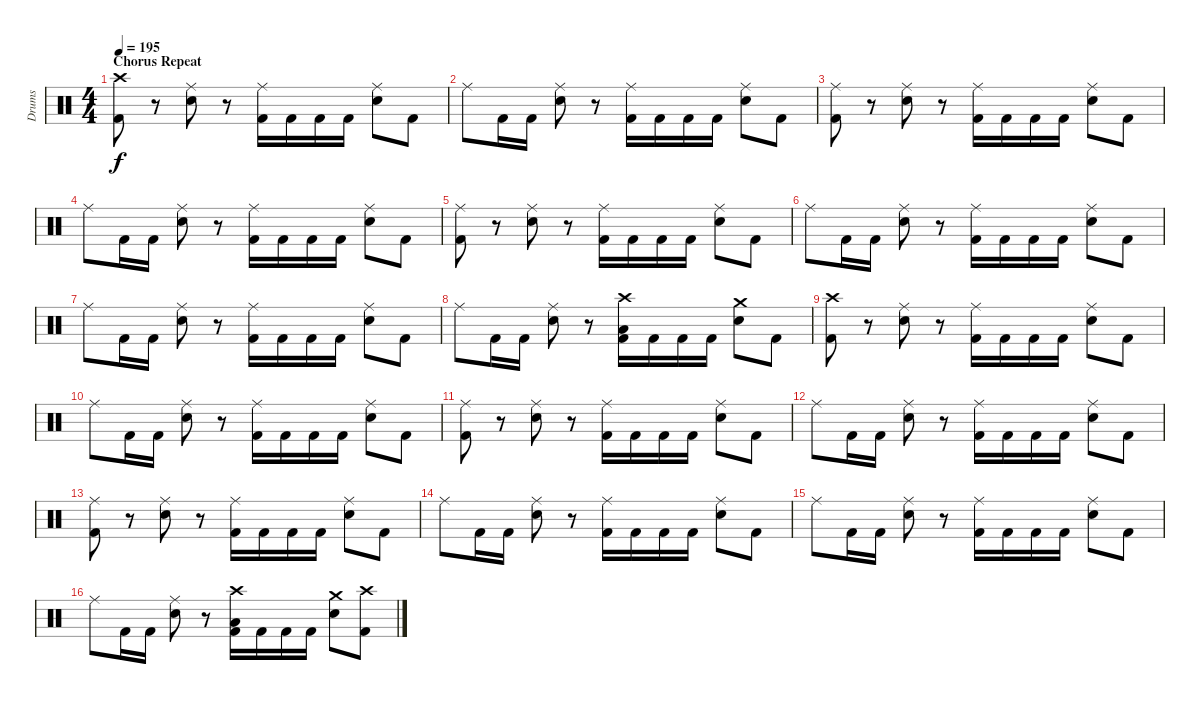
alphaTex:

\track ("Drums" "Drums") {instrument percussion}
\staff {score}
\articulation defaults
\ts (4 4)
\section ("" "Chorus Repeat")
\tempo 195
\clef neutral
\ks c
("Crash high (hit)" "Kick (hit) 2").8{dy f} r.8 ("Ride (middle)" "Snare (hit) 2").8 r.8 ("Ride (middle)" "Kick (hit) 2").16 "Kick (hit) 2".16 "Kick (hit) 2".16 "Kick (hit) 2".16 ("Ride (middle)" "Snare (hit) 2").8 "Kick (hit) 2".8 |
"Ride (middle)".8 "Kick (hit) 2".16 "Kick (hit) 2".16 ("Ride (middle)" "Snare (hit) 2").8 r.8 ("Ride (middle)" "Kick (hit) 2").16 "Kick (hit) 2".16 "Kick (hit) 2".16 "Kick (hit) 2".16 ("Ride (middle)" "Snare (hit) 2").8 "Kick (hit) 2".8 |
("Ride (middle)" "Kick (hit) 2").8 r.8 ("Ride (middle)" "Snare (hit) 2").8 r.8 ("Ride (middle)" "Kick (hit) 2").16 "Kick (hit) 2".16 "Kick (hit) 2".16 "Kick (hit) 2".16 ("Ride (middle)" "Snare (hit) 2").8 "Kick (hit) 2".8 |
"Ride (middle)".8 "Kick (hit) 2".16 "Kick (hit) 2".16 ("Ride (middle)" "Snare (hit) 2").8 r.8 ("Ride (middle)" "Kick (hit) 2").16 "Kick (hit) 2".16 "Kick (hit) 2".16 "Kick (hit) 2".16 ("Ride (middle)" "Snare (hit) 2").8 "Kick (hit) 2".8 |
("Ride (middle)" "Kick (hit) 2").8 r.8 ("Ride (middle)" "Snare (hit) 2").8 r.8 ("Ride (middle)" "Kick (hit) 2").16 "Kick (hit) 2".16 "Kick (hit) 2".16 "Kick (hit) 2".16 ("Ride (middle)" "Snare (hit) 2").8 "Kick (hit) 2".8 |
"Ride (middle)".8 "Kick (hit) 2".16 "Kick (hit) 2".16 ("Ride (middle)" "Snare (hit) 2").8 r.8 ("Ride (middle)" "Kick (hit) 2").16 "Kick (hit) 2".16 "Kick (hit) 2".16 "Kick (hit) 2".16 ("Ride (middle)" "Snare (hit) 2").8 "Kick (hit) 2".8 |
"Ride (middle)".8 "Kick (hit) 2".16 "Kick (hit) 2".16 ("Ride (middle)" "Snare (hit) 2").8 r.8 ("Ride (middle)" "Kick (hit) 2").16 "Kick (hit) 2".16 "Kick (hit) 2".16 "Kick (hit) 2".16 ("Ride (middle)" "Snare (hit) 2").8 "Kick (hit) 2".8 |
"Ride (middle)".8 "Kick (hit) 2".16 "Kick (hit) 2".16 ("Ride (middle)" "Snare (hit) 2").8 r.8 ("Crash high (hit)" "Low Floor Tom (hit)" "Kick (hit) 2").16 "Kick (hit) 2".16 "Kick (hit) 2".16 "Kick (hit) 2".16 ("Crash medium (hit)" "Snare (hit) 2").8 "Kick (hit) 2".8 |
("Crash high (hit)" "Kick (hit) 2").8 r.8 ("Ride (middle)" "Snare (hit) 2").8 r.8 ("Ride (middle)" "Kick (hit) 2").16 "Kick (hit) 2".16 "Kick (hit) 2".16 "Kick (hit) 2".16 ("Ride (middle)" "Snare (hit) 2").8 "Kick (hit) 2".8 |
"Ride (middle)".8 "Kick (hit) 2".16 "Kick (hit) 2".16 ("Ride (middle)" "Snare (hit) 2").8 r.8 ("Ride (middle)" "Kick (hit) 2").16 "Kick (hit) 2".16 "Kick (hit) 2".16 "Kick (hit) 2".16 ("Ride (middle)" "Snare (hit) 2").8 "Kick (hit) 2".8 |
("Ride (middle)" "Kick (hit) 2").8 r.8 ("Ride (middle)" "Snare (hit) 2").8 r.8 ("Ride (middle)" "Kick (hit) 2").16 "Kick (hit) 2".16 "Kick (hit) 2".16 "Kick (hit) 2".16 ("Ride (middle)" "Snare (hit) 2").8 "Kick (hit) 2".8 |
"Ride (middle)".8 "Kick (hit) 2".16 "Kick (hit) 2".16 ("Ride (middle)" "Snare (hit) 2").8 r.8 ("Ride (middle)" "Kick (hit) 2").16 "Kick (hit) 2".16 "Kick (hit) 2".16 "Kick (hit) 2".16 ("Ride (middle)" "Snare (hit) 2").8 "Kick (hit) 2".8 |
("Ride (middle)" "Kick (hit) 2").8 r.8 ("Ride (middle)" "Snare (hit) 2").8 r.8 ("Ride (middle)" "Kick (hit) 2").16 "Kick (hit) 2".16 "Kick (hit) 2".16 "Kick (hit) 2".16 ("Ride (middle)" "Snare (hit) 2").8 "Kick (hit) 2".8 |
"Ride (middle)".8 "Kick (hit) 2".16 "Kick (hit) 2".16 ("Ride (middle)" "Snare (hit) 2").8 r.8 ("Ride (middle)" "Kick (hit) 2").16 "Kick (hit) 2".16 "Kick (hit) 2".16 "Kick (hit) 2".16 ("Ride (middle)" "Snare (hit) 2").8 "Kick (hit) 2".8 |
"Ride (middle)".8 "Kick (hit) 2".16 "Kick (hit) 2".16 ("Ride (middle)" "Snare (hit) 2").8 r.8 ("Ride (middle)" "Kick (hit) 2").16 "Kick (hit) 2".16 "Kick (hit) 2".16 "Kick (hit) 2".16 ("Ride (middle)" "Snare (hit) 2").8 "Kick (hit) 2".8 |
"Ride (middle)".8 "Kick (hit) 2".16 "Kick (hit) 2".16 ("Ride (middle)" "Snare (hit) 2").8 r.8 ("Crash high (hit)" "Low Floor Tom (hit)" "Kick (hit) 2").16 "Kick (hit) 2".16 "Kick (hit) 2".16 "Kick (hit) 2".16 ("Crash medium (hit)" "Snare (hit) 2").8 ("Crash high (hit)" "Kick (hit) 2").8
